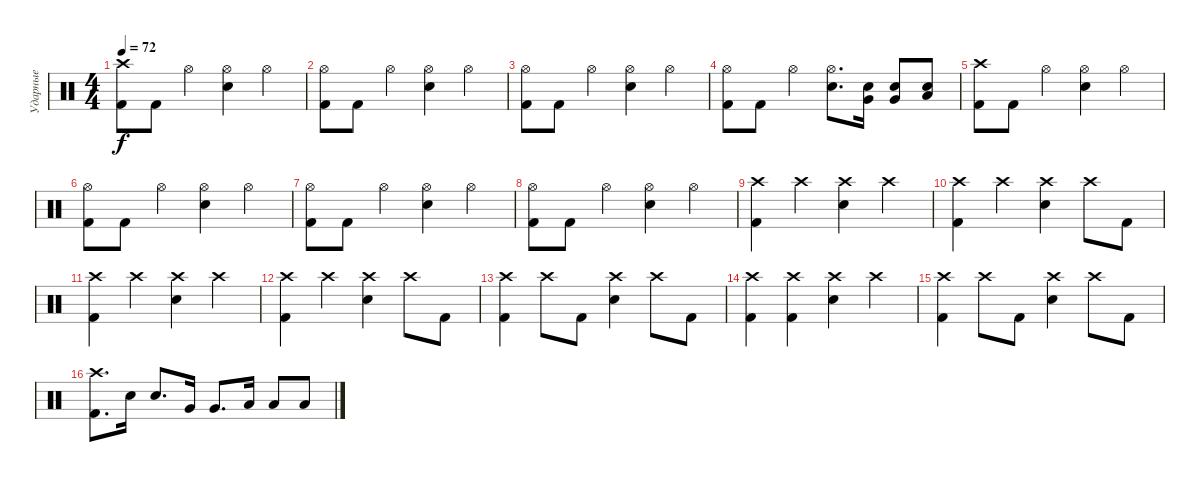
\track ("Ударные" "Ударные") {instrument percussion}
\staff {score}
\articulation defaults
\ts (4 4)
\tempo 72
\clef neutral
\ks c
("Crash high (hit)" "Kick (hit) 2").8{dy f} "Kick (hit) 2".8 "Hi-Hat (open)".4 ("Hi-Hat (open)" "Snare (hit) 2").4 "Hi-Hat (open)".4 |
("Hi-Hat (open)" "Kick (hit) 2").8 "Kick (hit) 2".8 "Hi-Hat (open)".4 ("Hi-Hat (open)" "Snare (hit) 2").4 "Hi-Hat (open)".4 |
("Hi-Hat (open)" "Kick (hit) 2").8 "Kick (hit) 2".8 "Hi-Hat (open)".4 ("Hi-Hat (open)" "Snare (hit) 2").4 "Hi-Hat (open)".4 |
("Hi-Hat (open)" "Kick (hit) 2").8 "Kick (hit) 2".8 "Hi-Hat (open)".4 ("Hi-Hat (open)" "Snare (hit) 2").8{d} ("Snare (hit) 2" "Very Low Tom (hit)").16 ("Snare (hit) 2" "Very Low Tom (hit)").8 ("Snare (hit) 2" "Low Floor Tom (hit)").8 |
("Crash high (hit)" "Kick (hit) 2").8 "Kick (hit) 2".8 "Hi-Hat (open)".4 ("Hi-Hat (open)" "Snare (hit) 2").4 "Hi-Hat (open)".4 |
("Hi-Hat (open)" "Kick (hit) 2").8 "Kick (hit) 2".8 "Hi-Hat (open)".4 ("Hi-Hat (open)" "Snare (hit) 2").4 "Hi-Hat (open)".4 |
("Hi-Hat (open)" "Kick (hit) 2").8 "Kick (hit) 2".8 "Hi-Hat (open)".4 ("Hi-Hat (open)" "Snare (hit) 2").4 "Hi-Hat (open)".4 |
("Hi-Hat (open)" "Kick (hit) 2").8 "Kick (hit) 2".8 "Hi-Hat (open)".4 ("Hi-Hat (open)" "Snare (hit) 2").4 "Hi-Hat (open)".4 |
("Crash high (hit)" "Kick (hit) 2").4 "Crash high (hit)".4 ("Crash high (hit)" "Snare (hit) 2").4 "Crash high (hit)".4 |
("Crash high (hit)" "Kick (hit) 2").4 "Crash high (hit)".4 ("Crash high (hit)" "Snare (hit) 2").4 "Crash high (hit)".8 "Kick (hit) 2".8 |
("Crash high (hit)" "Kick (hit) 2").4 "Crash high (hit)".4 ("Crash high (hit)" "Snare (hit) 2").4 "Crash high (hit)".4 |
("Crash high (hit)" "Kick (hit) 2").4 "Crash high (hit)".4 ("Crash high (hit)" "Snare (hit) 2").4 "Crash high (hit)".8 "Kick (hit) 2".8 |
("Crash high (hit)" "Kick (hit) 2").4 "Crash high (hit)".8 "Kick (hit) 2".8 ("Crash high (hit)" "Snare (hit) 2").4 "Crash high (hit)".8 "Kick (hit) 2".8 |
("Crash high (hit)" "Kick (hit) 2").4 ("Crash high (hit)" "Kick (hit) 2").4 ("Crash high (hit)" "Snare (hit) 2").4 "Crash high (hit)".4 |
("Crash high (hit)" "Kick (hit) 2").4 "Crash high (hit)".8 "Kick (hit) 2".8 ("Crash high (hit)" "Snare (hit) 2").4 "Crash high (hit)".8 "Kick (hit) 2".8 |
("Crash high (hit)" "Kick (hit) 2").8{d} "Snare (hit) 2".16 "Snare (hit) 2".8{d} "Very Low Tom (hit)".16 "Very Low Tom (hit)".8{d} "Low Floor Tom (hit)".16 "Low Floor Tom (hit)".8 "Low Floor Tom (hit)".8
